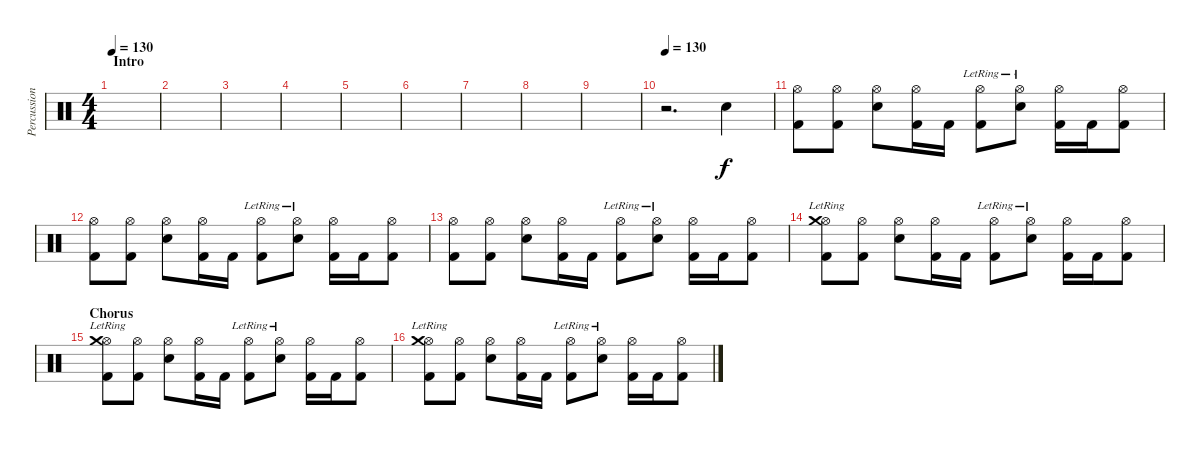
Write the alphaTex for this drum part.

\track ("Percussions" "Percussion") {instrument percussion}
\staff {score}
\articulation defaults
\ts (4 4)
\section ("" "Intro")
\tempo 130
\clef neutral
\ks c
|
|
|
|
|
|
|
|
|
\tempo 130
r.2{d} "Snare (hit) 2".4 |
("Kick (hit) 2" "Hi-Hat (open)").8 ("Kick (hit) 2" "Hi-Hat (open)").8 ("Snare (hit) 2" "Hi-Hat (open)").8 ("Kick (hit) 2" "Hi-Hat (open)").16 "Kick (hit) 2".16 ("Kick (hit) 2" "Hi-Hat (open)"{lr}).8 ("Snare (hit) 2" "Hi-Hat (open)"{lr}).8 ("Kick (hit) 2" "Hi-Hat (open)").16 "Kick (hit) 2".16 ("Kick (hit) 2" "Hi-Hat (open)").8 |
("Kick (hit) 2" "Hi-Hat (open)").8 ("Kick (hit) 2" "Hi-Hat (open)").8 ("Snare (hit) 2" "Hi-Hat (open)").8 ("Kick (hit) 2" "Hi-Hat (open)").16 "Kick (hit) 2".16 ("Kick (hit) 2" "Hi-Hat (open)"{lr}).8 ("Snare (hit) 2" "Hi-Hat (open)"{lr}).8 ("Kick (hit) 2" "Hi-Hat (open)").16 "Kick (hit) 2".16 ("Kick (hit) 2" "Hi-Hat (open)").8 |
("Kick (hit) 2" "Hi-Hat (open)").8 ("Kick (hit) 2" "Hi-Hat (open)").8 ("Snare (hit) 2" "Hi-Hat (open)").8 ("Kick (hit) 2" "Hi-Hat (open)").16 "Kick (hit) 2".16 ("Kick (hit) 2" "Hi-Hat (open)"{lr}).8 ("Snare (hit) 2" "Hi-Hat (open)"{lr}).8 ("Kick (hit) 2" "Hi-Hat (open)").16 "Kick (hit) 2".16 ("Kick (hit) 2" "Hi-Hat (open)").8 |
("Kick (hit) 2" "Hi-Hat (open)" "Crash medium (hit)"{lr}).8 ("Kick (hit) 2" "Hi-Hat (open)").8 ("Snare (hit) 2" "Hi-Hat (open)").8 ("Kick (hit) 2" "Hi-Hat (open)").16 "Kick (hit) 2".16 ("Kick (hit) 2" "Hi-Hat (open)"{lr}).8 ("Snare (hit) 2" "Hi-Hat (open)"{lr}).8 ("Kick (hit) 2" "Hi-Hat (open)").16 "Kick (hit) 2".16 ("Kick (hit) 2" "Hi-Hat (open)").8 |
\section ("" "Chorus")
("Kick (hit) 2" "Hi-Hat (open)" "Crash medium (hit)"{lr}).8 ("Kick (hit) 2" "Hi-Hat (open)").8 ("Snare (hit) 2" "Hi-Hat (open)").8 ("Kick (hit) 2" "Hi-Hat (open)").16 "Kick (hit) 2".16 ("Kick (hit) 2" "Hi-Hat (open)"{lr}).8 ("Snare (hit) 2" "Hi-Hat (open)"{lr}).8 ("Kick (hit) 2" "Hi-Hat (open)").16 "Kick (hit) 2".16 ("Kick (hit) 2" "Hi-Hat (open)").8 |
("Kick (hit) 2" "Hi-Hat (open)" "Crash medium (hit)"{lr}).8 ("Kick (hit) 2" "Hi-Hat (open)").8 ("Snare (hit) 2" "Hi-Hat (open)").8 ("Kick (hit) 2" "Hi-Hat (open)").16 "Kick (hit) 2".16 ("Kick (hit) 2" "Hi-Hat (open)"{lr}).8 ("Snare (hit) 2" "Hi-Hat (open)"{lr}).8 ("Kick (hit) 2" "Hi-Hat (open)").16 "Kick (hit) 2".16 ("Kick (hit) 2" "Hi-Hat (open)").8
